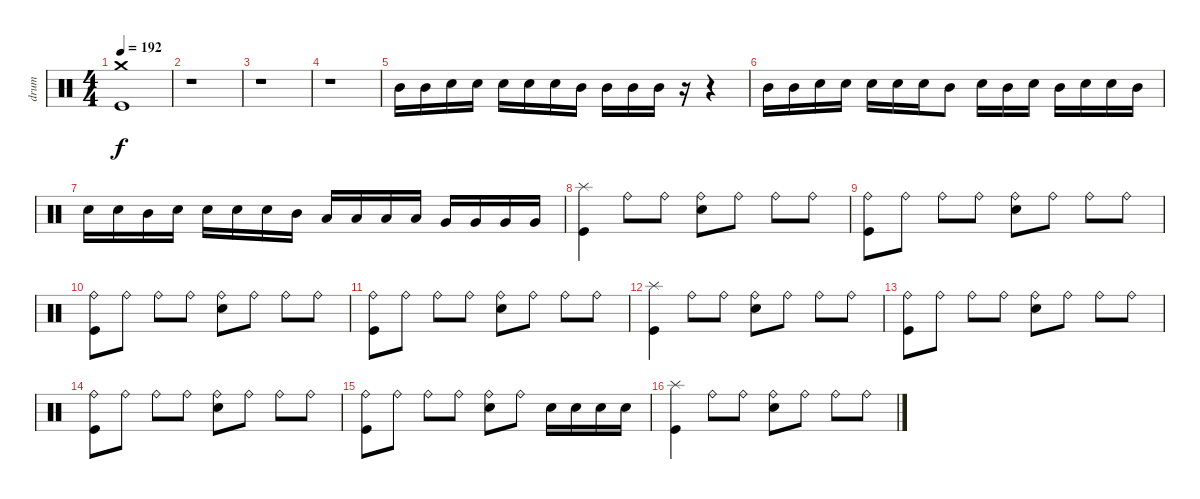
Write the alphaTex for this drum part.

\track ("drum" "drum") {instrument percussion}
\staff {score}
\articulation defaults
\ts (4 4)
\tempo 192
\clef neutral
\ks c
("Kick (hit)" "Crash medium (hit)").1{dy f} |
r.1 |
r.1 |
r.1 |
"Mid Tom (hit)".16 "Mid Tom (hit)".16 "Electric Snare (hit)".16 "Electric Snare (hit)".16 "Electric Snare (hit)".16 "Electric Snare (hit)".16 "Electric Snare (hit)".16 "Mid Tom (hit)".16 "Mid Tom (hit)".16 "Mid Tom (hit)".16 "Mid Tom (hit)".16 r.16 r.4 |
"Mid Tom (hit)".16 "Mid Tom (hit)".16 "Electric Snare (hit)".16 "Electric Snare (hit)".16 "Electric Snare (hit)".16 "Electric Snare (hit)".16 "Electric Snare (hit)".16 "Mid Tom (hit)".8 "Electric Snare (hit)".16 "Mid Tom (hit)".16 "Electric Snare (hit)".16 "Mid Tom (hit)".16 "Electric Snare (hit)".16 "Electric Snare (hit)".16 "Mid Tom (hit)".16 |
"Electric Snare (hit)".16 "Electric Snare (hit)".16 "Mid Tom (hit)".16 "Electric Snare (hit)".16 "Electric Snare (hit)".16 "Electric Snare (hit)".16 "Electric Snare (hit)".16 "Mid Tom (hit)".16 "Low Tom (hit)".16 "Low Tom (hit)".16 "Low Tom (hit)".16 "Low Tom (hit)".16 "Very Low Tom (hit)".16 "Very Low Tom (hit)".16 "Very Low Tom (hit)".16 "Very Low Tom (hit)".16 |
("Kick (hit)" "Splash (hit)").4 "Ride (bell)".8 "Ride (bell)".8 ("Electric Snare (hit)" "Ride (bell)").8 "Ride (bell)".8 "Ride (bell)".8 "Ride (bell)".8 |
("Kick (hit)" "Ride (bell)").8 "Ride (bell)".8 "Ride (bell)".8 "Ride (bell)".8 ("Electric Snare (hit)" "Ride (bell)").8 "Ride (bell)".8 "Ride (bell)".8 "Ride (bell)".8 |
("Kick (hit)" "Ride (bell)").8 "Ride (bell)".8 "Ride (bell)".8 "Ride (bell)".8 ("Electric Snare (hit)" "Ride (bell)").8 "Ride (bell)".8 "Ride (bell)".8 "Ride (bell)".8 |
("Kick (hit)" "Ride (bell)").8 "Ride (bell)".8 "Ride (bell)".8 "Ride (bell)".8 ("Electric Snare (hit)" "Ride (bell)").8 "Ride (bell)".8 "Ride (bell)".8 "Ride (bell)".8 |
("Kick (hit)" "Splash (hit)").4 "Ride (bell)".8 "Ride (bell)".8 ("Electric Snare (hit)" "Ride (bell)").8 "Ride (bell)".8 "Ride (bell)".8 "Ride (bell)".8 |
("Kick (hit)" "Ride (bell)").8 "Ride (bell)".8 "Ride (bell)".8 "Ride (bell)".8 ("Electric Snare (hit)" "Ride (bell)").8 "Ride (bell)".8 "Ride (bell)".8 "Ride (bell)".8 |
("Kick (hit)" "Ride (bell)").8 "Ride (bell)".8 "Ride (bell)".8 "Ride (bell)".8 ("Electric Snare (hit)" "Ride (bell)").8 "Ride (bell)".8 "Ride (bell)".8 "Ride (bell)".8 |
("Kick (hit)" "Ride (bell)").8 "Ride (bell)".8 "Ride (bell)".8 "Ride (bell)".8 ("Electric Snare (hit)" "Ride (bell)").8 "Ride (bell)".8 "Electric Snare (hit)".16 "Electric Snare (hit)".16 "Electric Snare (hit)".16 "Electric Snare (hit)".16 |
("Kick (hit)" "Splash (hit)").4 "Ride (bell)".8 "Ride (bell)".8 ("Electric Snare (hit)" "Ride (bell)").8 "Ride (bell)".8 "Ride (bell)".8 "Ride (bell)".8
